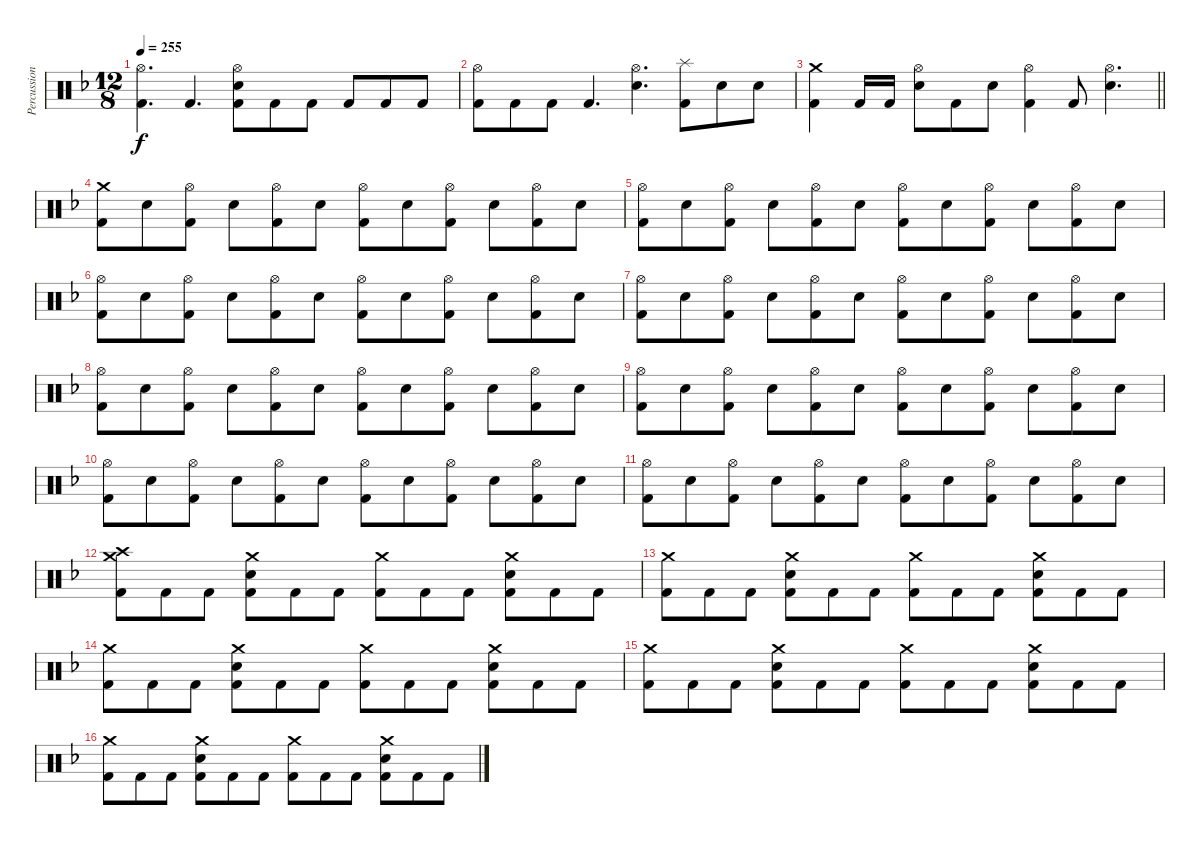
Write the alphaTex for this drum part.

\track ("Percussion" "Percussion") {instrument percussion}
\staff {score}
\articulation defaults
\ts (12 8)
\tempo 255
\clef neutral
\ks dminor
("Hi-Hat (open)" "Kick (hit) 2").4{d dy f} "Kick (hit) 2".4{d} ("Hi-Hat (open)" "Electric Snare (hit)" "Kick (hit) 2").8 "Kick (hit) 2".8 "Kick (hit) 2".8 "Kick (hit) 2".8 "Kick (hit) 2".8 "Kick (hit) 2".8 |
("Hi-Hat (open)" "Kick (hit) 2").8 "Kick (hit) 2".8 "Kick (hit) 2".8 "Kick (hit) 2".4{d} ("Hi-Hat (open)" "Electric Snare (hit)").4{d} ("Splash (hit)" "Kick (hit) 2").8 "Electric Snare (hit)".8 "Electric Snare (hit)".8 |
\barLineRight lightlight
("Crash medium (hit)" "Kick (hit) 2").4 "Kick (hit) 2".16 "Kick (hit) 2".16 ("Hi-Hat (open)" "Electric Snare (hit)").8 "Kick (hit) 2".8 "Electric Snare (hit)".8 ("Hi-Hat (open)" "Kick (hit) 2").4 "Kick (hit) 2".8 ("Hi-Hat (open)" "Electric Snare (hit)").4{d} |
\section ("" "")
("Crash medium (hit)" "Kick (hit) 2").8 "Electric Snare (hit)".8 ("Hi-Hat (open)" "Kick (hit) 2").8 "Electric Snare (hit)".8 ("Hi-Hat (open)" "Kick (hit) 2").8 "Electric Snare (hit)".8 ("Hi-Hat (open)" "Kick (hit) 2").8 "Electric Snare (hit)".8 ("Hi-Hat (open)" "Kick (hit) 2").8 "Electric Snare (hit)".8 ("Hi-Hat (open)" "Kick (hit) 2").8 "Electric Snare (hit)".8 |
("Hi-Hat (open)" "Kick (hit) 2").8 "Electric Snare (hit)".8 ("Hi-Hat (open)" "Kick (hit) 2").8 "Electric Snare (hit)".8 ("Hi-Hat (open)" "Kick (hit) 2").8 "Electric Snare (hit)".8 ("Hi-Hat (open)" "Kick (hit) 2").8 "Electric Snare (hit)".8 ("Hi-Hat (open)" "Kick (hit) 2").8 "Electric Snare (hit)".8 ("Hi-Hat (open)" "Kick (hit) 2").8 "Electric Snare (hit)".8 |
("Hi-Hat (open)" "Kick (hit) 2").8 "Electric Snare (hit)".8 ("Hi-Hat (open)" "Kick (hit) 2").8 "Electric Snare (hit)".8 ("Hi-Hat (open)" "Kick (hit) 2").8 "Electric Snare (hit)".8 ("Hi-Hat (open)" "Kick (hit) 2").8 "Electric Snare (hit)".8 ("Hi-Hat (open)" "Kick (hit) 2").8 "Electric Snare (hit)".8 ("Hi-Hat (open)" "Kick (hit) 2").8 "Electric Snare (hit)".8 |
("Hi-Hat (open)" "Kick (hit) 2").8 "Electric Snare (hit)".8 ("Hi-Hat (open)" "Kick (hit) 2").8 "Electric Snare (hit)".8 ("Hi-Hat (open)" "Kick (hit) 2").8 "Electric Snare (hit)".8 ("Hi-Hat (open)" "Kick (hit) 2").8 "Electric Snare (hit)".8 ("Hi-Hat (open)" "Kick (hit) 2").8 "Electric Snare (hit)".8 ("Hi-Hat (open)" "Kick (hit) 2").8 "Electric Snare (hit)".8 |
("Hi-Hat (open)" "Kick (hit) 2").8 "Electric Snare (hit)".8 ("Hi-Hat (open)" "Kick (hit) 2").8 "Electric Snare (hit)".8 ("Hi-Hat (open)" "Kick (hit) 2").8 "Electric Snare (hit)".8 ("Hi-Hat (open)" "Kick (hit) 2").8 "Electric Snare (hit)".8 ("Hi-Hat (open)" "Kick (hit) 2").8 "Electric Snare (hit)".8 ("Hi-Hat (open)" "Kick (hit) 2").8 "Electric Snare (hit)".8 |
("Hi-Hat (open)" "Kick (hit) 2").8 "Electric Snare (hit)".8 ("Hi-Hat (open)" "Kick (hit) 2").8 "Electric Snare (hit)".8 ("Hi-Hat (open)" "Kick (hit) 2").8 "Electric Snare (hit)".8 ("Hi-Hat (open)" "Kick (hit) 2").8 "Electric Snare (hit)".8 ("Hi-Hat (open)" "Kick (hit) 2").8 "Electric Snare (hit)".8 ("Hi-Hat (open)" "Kick (hit) 2").8 "Electric Snare (hit)".8 |
("Hi-Hat (open)" "Kick (hit) 2").8 "Electric Snare (hit)".8 ("Hi-Hat (open)" "Kick (hit) 2").8 "Electric Snare (hit)".8 ("Hi-Hat (open)" "Kick (hit) 2").8 "Electric Snare (hit)".8 ("Hi-Hat (open)" "Kick (hit) 2").8 "Electric Snare (hit)".8 ("Hi-Hat (open)" "Kick (hit) 2").8 "Electric Snare (hit)".8 ("Hi-Hat (open)" "Kick (hit) 2").8 "Electric Snare (hit)".8 |
("Hi-Hat (open)" "Kick (hit) 2").8 "Electric Snare (hit)".8 ("Hi-Hat (open)" "Kick (hit) 2").8 "Electric Snare (hit)".8 ("Hi-Hat (open)" "Kick (hit) 2").8 "Electric Snare (hit)".8 ("Hi-Hat (open)" "Kick (hit) 2").8 "Electric Snare (hit)".8 ("Hi-Hat (open)" "Kick (hit) 2").8 "Electric Snare (hit)".8 ("Hi-Hat (open)" "Kick (hit) 2").8 "Electric Snare (hit)".8 |
("Crash medium (hit)" "Crash high (hit)" "Kick (hit) 2").8 "Kick (hit) 2".8 "Kick (hit) 2".8 ("Crash medium (hit)" "Electric Snare (hit)" "Kick (hit) 2").8 "Kick (hit) 2".8 "Kick (hit) 2".8 ("Crash medium (hit)" "Kick (hit) 2").8 "Kick (hit) 2".8 "Kick (hit) 2".8 ("Crash medium (hit)" "Electric Snare (hit)" "Kick (hit) 2").8 "Kick (hit) 2".8 "Kick (hit) 2".8 |
("Crash medium (hit)" "Kick (hit) 2").8 "Kick (hit) 2".8 "Kick (hit) 2".8 ("Crash medium (hit)" "Electric Snare (hit)" "Kick (hit) 2").8 "Kick (hit) 2".8 "Kick (hit) 2".8 ("Crash medium (hit)" "Kick (hit) 2").8 "Kick (hit) 2".8 "Kick (hit) 2".8 ("Crash medium (hit)" "Electric Snare (hit)" "Kick (hit) 2").8 "Kick (hit) 2".8 "Kick (hit) 2".8 |
("Crash medium (hit)" "Kick (hit) 2").8 "Kick (hit) 2".8 "Kick (hit) 2".8 ("Crash medium (hit)" "Electric Snare (hit)" "Kick (hit) 2").8 "Kick (hit) 2".8 "Kick (hit) 2".8 ("Crash medium (hit)" "Kick (hit) 2").8 "Kick (hit) 2".8 "Kick (hit) 2".8 ("Crash medium (hit)" "Electric Snare (hit)" "Kick (hit) 2").8 "Kick (hit) 2".8 "Kick (hit) 2".8 |
("Crash medium (hit)" "Kick (hit) 2").8 "Kick (hit) 2".8 "Kick (hit) 2".8 ("Crash medium (hit)" "Electric Snare (hit)" "Kick (hit) 2").8 "Kick (hit) 2".8 "Kick (hit) 2".8 ("Crash medium (hit)" "Kick (hit) 2").8 "Kick (hit) 2".8 "Kick (hit) 2".8 ("Crash medium (hit)" "Electric Snare (hit)" "Kick (hit) 2").8 "Kick (hit) 2".8 "Kick (hit) 2".8 |
("Crash medium (hit)" "Kick (hit) 2").8 "Kick (hit) 2".8 "Kick (hit) 2".8 ("Crash medium (hit)" "Electric Snare (hit)" "Kick (hit) 2").8 "Kick (hit) 2".8 "Kick (hit) 2".8 ("Crash medium (hit)" "Kick (hit) 2").8 "Kick (hit) 2".8 "Kick (hit) 2".8 ("Crash medium (hit)" "Electric Snare (hit)" "Kick (hit) 2").8 "Kick (hit) 2".8 "Kick (hit) 2".8
